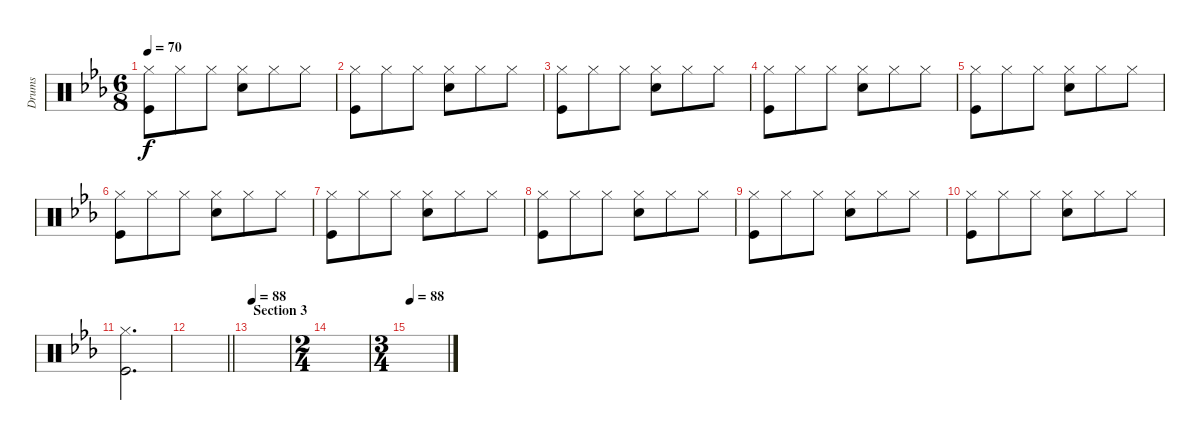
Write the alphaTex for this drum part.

\track ("Drums" "Drums") {instrument percussion}
\staff {score}
\articulation defaults
\ts (6 8)
\tempo 70
\clef neutral
\ks cminor
("Hi-Hat (closed)" "Kick (hit)").8{dy f} "Hi-Hat (closed)".8 "Hi-Hat (closed)".8 ("Hi-Hat (closed)" "Snare (hit) 2").8 "Hi-Hat (closed)".8 "Hi-Hat (closed)".8 |
("Hi-Hat (closed)" "Kick (hit)").8 "Hi-Hat (closed)".8 "Hi-Hat (closed)".8 ("Hi-Hat (closed)" "Snare (hit) 2").8 "Hi-Hat (closed)".8 "Hi-Hat (closed)".8 |
("Hi-Hat (closed)" "Kick (hit)").8 "Hi-Hat (closed)".8 "Hi-Hat (closed)".8 ("Hi-Hat (closed)" "Snare (hit) 2").8 "Hi-Hat (closed)".8 "Hi-Hat (closed)".8 |
("Hi-Hat (closed)" "Kick (hit)").8 "Hi-Hat (closed)".8 "Hi-Hat (closed)".8 ("Hi-Hat (closed)" "Snare (hit) 2").8 "Hi-Hat (closed)".8 "Hi-Hat (closed)".8 |
("Hi-Hat (closed)" "Kick (hit)").8 "Hi-Hat (closed)".8 "Hi-Hat (closed)".8 ("Hi-Hat (closed)" "Snare (hit) 2").8 "Hi-Hat (closed)".8 "Hi-Hat (closed)".8 |
("Hi-Hat (closed)" "Kick (hit)").8 "Hi-Hat (closed)".8 "Hi-Hat (closed)".8 ("Hi-Hat (closed)" "Snare (hit) 2").8 "Hi-Hat (closed)".8 "Hi-Hat (closed)".8 |
("Hi-Hat (closed)" "Kick (hit)").8 "Hi-Hat (closed)".8 "Hi-Hat (closed)".8 ("Hi-Hat (closed)" "Snare (hit) 2").8 "Hi-Hat (closed)".8 "Hi-Hat (closed)".8 |
("Hi-Hat (closed)" "Kick (hit)").8 "Hi-Hat (closed)".8 "Hi-Hat (closed)".8 ("Hi-Hat (closed)" "Snare (hit) 2").8 "Hi-Hat (closed)".8 "Hi-Hat (closed)".8 |
("Hi-Hat (closed)" "Kick (hit)").8 "Hi-Hat (closed)".8 "Hi-Hat (closed)".8 ("Hi-Hat (closed)" "Snare (hit) 2").8 "Hi-Hat (closed)".8 "Hi-Hat (closed)".8 |
("Hi-Hat (closed)" "Kick (hit)").8 "Hi-Hat (closed)".8 "Hi-Hat (closed)".8 ("Hi-Hat (closed)" "Snare (hit) 2").8 "Hi-Hat (closed)".8 "Hi-Hat (closed)".8 |
("Hi-Hat (closed)" "Kick (hit)").2{d} |
\barLineRight lightlight
|
\section ("" "Section 3")
\tempo 88
|
\ts (2 4)
|
\ts (3 4)
\tempo 88
